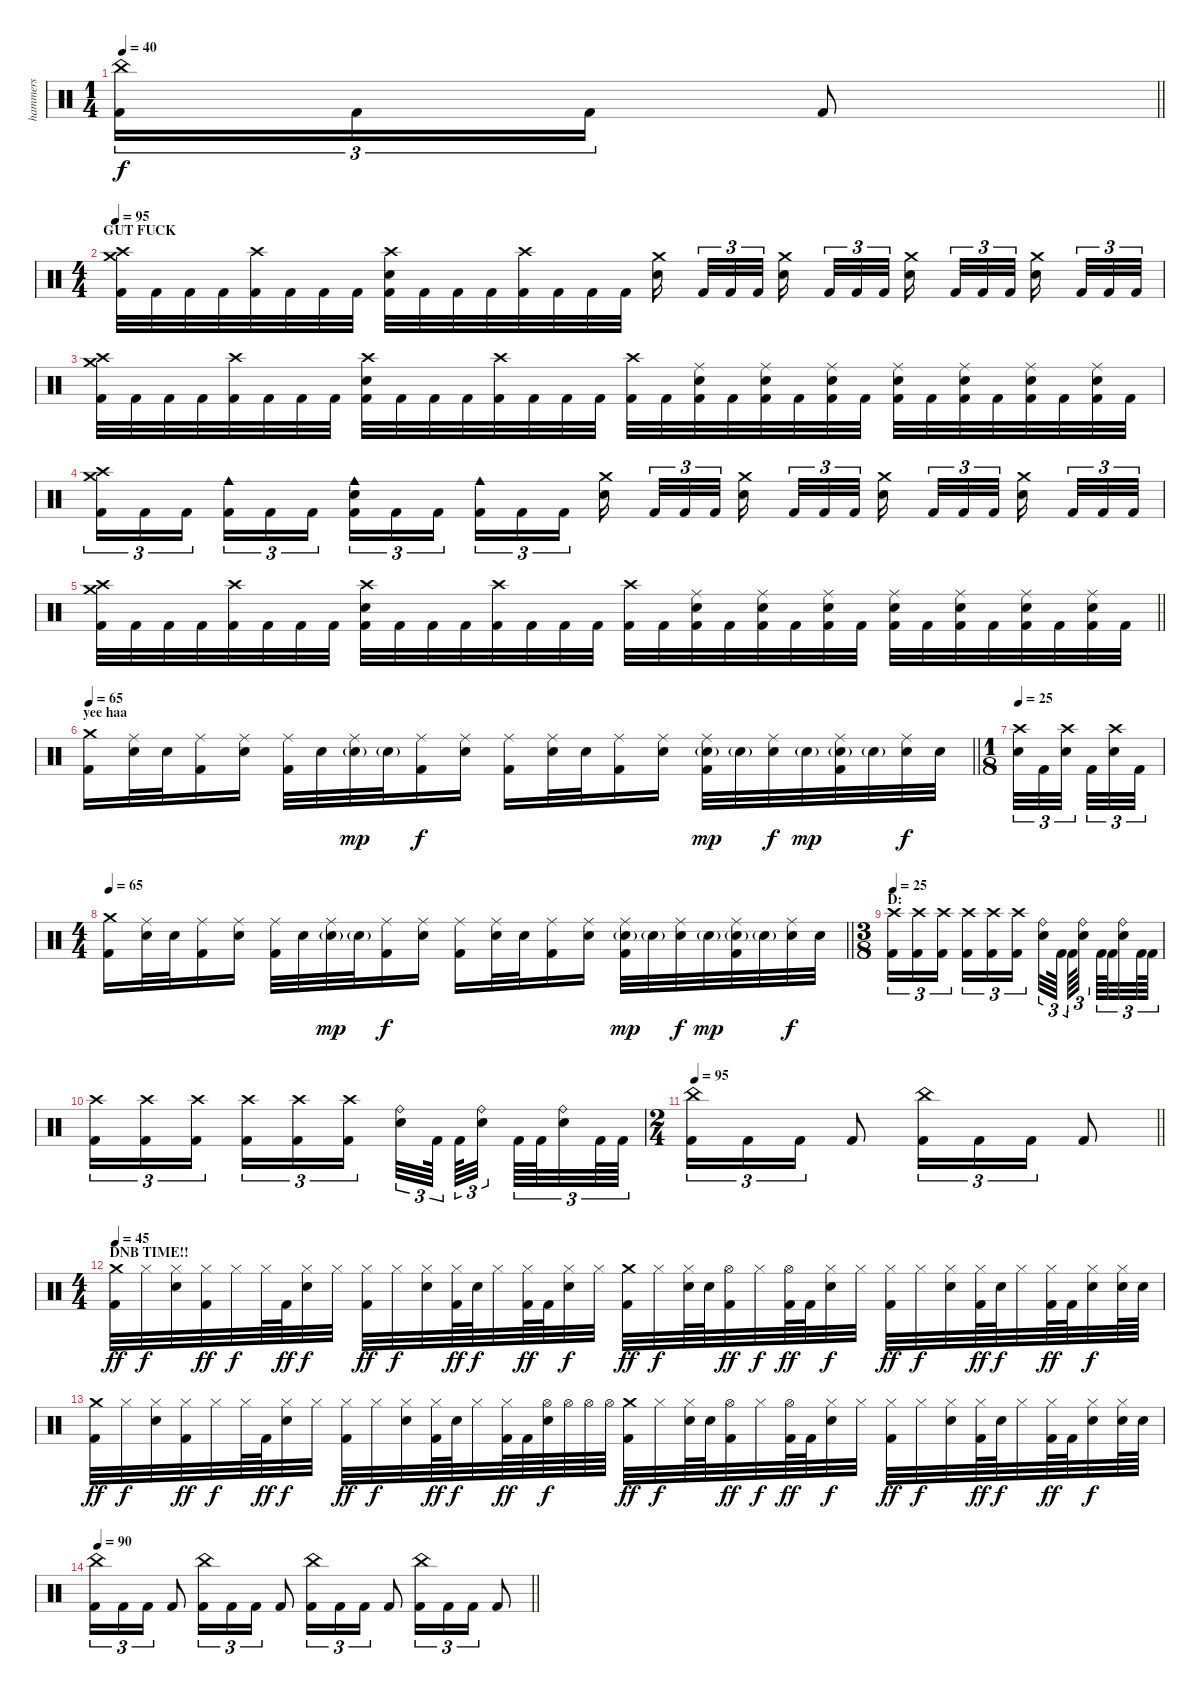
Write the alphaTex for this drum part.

\track ("hammers" "hammers") {instrument percussion}
\staff {score}
\articulation defaults
\ts (1 4)
\tempo 40
\clef neutral
\barLineRight lightlight
\ks c
("China (hit)" "Kick (hit) 2").16{tu (3 2) dy f} "Kick (hit) 2".16{tu (3 2)} "Kick (hit) 2".16{tu (3 2)} "Kick (hit) 2".8 |
\ts (4 4)
\section ("" "GUT FUCK")
\tempo 95
("Crash high (hit)" "Crash medium (hit)" "Kick (hit) 2").32 "Kick (hit) 2".32 "Kick (hit) 2".32 "Kick (hit) 2".32 ("Crash high (hit)" "Kick (hit) 2").32 "Kick (hit) 2".32 "Kick (hit) 2".32 "Kick (hit) 2".32 ("Crash high (hit)" "Electric Snare (hit)" "Kick (hit) 2").32 "Kick (hit) 2".32 "Kick (hit) 2".32 "Kick (hit) 2".32 ("Crash high (hit)" "Kick (hit) 2").32 "Kick (hit) 2".32 "Kick (hit) 2".32 "Kick (hit) 2".32 ("Crash medium (hit)" "Electric Snare (hit)").16{beam splitsecondary} "Kick (hit) 2".32{tu (3 2)} "Kick (hit) 2".32{tu (3 2)} "Kick (hit) 2".32{tu (3 2) beam splitsecondary} ("Crash medium (hit)" "Electric Snare (hit)").16{beam splitsecondary} "Kick (hit) 2".32{tu (3 2)} "Kick (hit) 2".32{tu (3 2)} "Kick (hit) 2".32{tu (3 2)} ("Crash medium (hit)" "Electric Snare (hit)").16{beam splitsecondary} "Kick (hit) 2".32{tu (3 2)} "Kick (hit) 2".32{tu (3 2)} "Kick (hit) 2".32{tu (3 2) beam splitsecondary} ("Crash medium (hit)" "Electric Snare (hit)").16{beam splitsecondary} "Kick (hit) 2".32{tu (3 2)} "Kick (hit) 2".32{tu (3 2)} "Kick (hit) 2".32{tu (3 2)} |
("Crash high (hit)" "Crash medium (hit)" "Kick (hit) 2").32 "Kick (hit) 2".32 "Kick (hit) 2".32 "Kick (hit) 2".32 ("Crash high (hit)" "Kick (hit) 2").32 "Kick (hit) 2".32 "Kick (hit) 2".32 "Kick (hit) 2".32 ("Crash high (hit)" "Electric Snare (hit)" "Kick (hit) 2").32 "Kick (hit) 2".32 "Kick (hit) 2".32 "Kick (hit) 2".32 ("Crash high (hit)" "Kick (hit) 2").32 "Kick (hit) 2".32 "Kick (hit) 2".32 "Kick (hit) 2".32 ("Crash high (hit)" "Kick (hit) 2").32 "Kick (hit) 2".32 ("Ride (middle)" "Electric Snare (hit)" "Kick (hit) 2").32 "Kick (hit) 2".32 ("Ride (middle)" "Electric Snare (hit)" "Kick (hit) 2").32 "Kick (hit) 2".32 ("Ride (middle)" "Electric Snare (hit)" "Kick (hit) 2").32 "Kick (hit) 2".32 ("Ride (middle)" "Electric Snare (hit)" "Kick (hit) 2").32 "Kick (hit) 2".32 ("Ride (middle)" "Electric Snare (hit)" "Kick (hit) 2").32 "Kick (hit) 2".32 ("Ride (middle)" "Electric Snare (hit)" "Kick (hit) 2").32 "Kick (hit) 2".32 ("Ride (middle)" "Electric Snare (hit)" "Kick (hit) 2").32 "Kick (hit) 2".32 |
("Crash high (hit)" "Crash medium (hit)" "Kick (hit) 2").16{tu (3 2)} "Kick (hit) 2".16{tu (3 2)} "Kick (hit) 2".16{tu (3 2) beam splitsecondary} ("Cowbell medium (hit)" "Kick (hit) 2").16{tu (3 2)} "Kick (hit) 2".16{tu (3 2)} "Kick (hit) 2".16{tu (3 2)} ("Cowbell medium (hit)" "Electric Snare (hit)" "Kick (hit) 2").16{tu (3 2)} "Kick (hit) 2".16{tu (3 2)} "Kick (hit) 2".16{tu (3 2) beam splitsecondary} ("Cowbell medium (hit)" "Kick (hit) 2").16{tu (3 2)} "Kick (hit) 2".16{tu (3 2)} "Kick (hit) 2".16{tu (3 2)} ("Crash medium (hit)" "Electric Snare (hit)").16{beam splitsecondary} "Kick (hit) 2".32{tu (3 2)} "Kick (hit) 2".32{tu (3 2)} "Kick (hit) 2".32{tu (3 2) beam splitsecondary} ("Crash medium (hit)" "Electric Snare (hit)").16{beam splitsecondary} "Kick (hit) 2".32{tu (3 2)} "Kick (hit) 2".32{tu (3 2)} "Kick (hit) 2".32{tu (3 2)} ("Crash medium (hit)" "Electric Snare (hit)").16{beam splitsecondary} "Kick (hit) 2".32{tu (3 2)} "Kick (hit) 2".32{tu (3 2)} "Kick (hit) 2".32{tu (3 2) beam splitsecondary} ("Crash medium (hit)" "Electric Snare (hit)").16{beam splitsecondary} "Kick (hit) 2".32{tu (3 2)} "Kick (hit) 2".32{tu (3 2)} "Kick (hit) 2".32{tu (3 2)} |
\barLineRight lightlight
("Crash high (hit)" "Crash medium (hit)" "Kick (hit) 2").32 "Kick (hit) 2".32 "Kick (hit) 2".32 "Kick (hit) 2".32 ("Crash high (hit)" "Kick (hit) 2").32 "Kick (hit) 2".32 "Kick (hit) 2".32 "Kick (hit) 2".32 ("Crash high (hit)" "Electric Snare (hit)" "Kick (hit) 2").32 "Kick (hit) 2".32 "Kick (hit) 2".32 "Kick (hit) 2".32 ("Crash high (hit)" "Kick (hit) 2").32 "Kick (hit) 2".32 "Kick (hit) 2".32 "Kick (hit) 2".32 ("Crash high (hit)" "Kick (hit) 2").32 "Kick (hit) 2".32 ("Ride (middle)" "Electric Snare (hit)" "Kick (hit) 2").32 "Kick (hit) 2".32 ("Ride (middle)" "Electric Snare (hit)" "Kick (hit) 2").32 "Kick (hit) 2".32 ("Ride (middle)" "Electric Snare (hit)" "Kick (hit) 2").32 "Kick (hit) 2".32 ("Ride (middle)" "Electric Snare (hit)" "Kick (hit) 2").32 "Kick (hit) 2".32 ("Ride (middle)" "Electric Snare (hit)" "Kick (hit) 2").32 "Kick (hit) 2".32 ("Ride (middle)" "Electric Snare (hit)" "Kick (hit) 2").32 "Kick (hit) 2".32 ("Ride (middle)" "Electric Snare (hit)" "Kick (hit) 2").32 "Kick (hit) 2".32 |
\section ("" "yee haa")
\tempo 65
\barLineRight lightlight
("Crash medium (hit)" "Kick (hit) 2").16 ("Ride (middle)" "Electric Snare (hit)").32 "Electric Snare (hit)".32 ("Ride (middle)" "Kick (hit) 2").16 ("Ride (middle)" "Electric Snare (hit)").16 ("Ride (middle)" "Kick (hit) 2").32 "Electric Snare (hit)".32 ("Ride (middle)" "Electric Snare (hit)"{g}).32{dy mp} "Electric Snare (hit)"{g}.32 ("Ride (middle)" "Kick (hit) 2").16{dy f} ("Ride (middle)" "Electric Snare (hit)").16 ("Ride (middle)" "Kick (hit) 2").16 ("Ride (middle)" "Electric Snare (hit)").32 "Electric Snare (hit)".32 ("Ride (middle)" "Kick (hit) 2").16 ("Ride (middle)" "Electric Snare (hit)").16 ("Ride (middle)" "Electric Snare (hit)"{g} "Kick (hit) 2").32{dy mp} "Electric Snare (hit)"{g}.32 ("Ride (middle)" "Electric Snare (hit)").32{dy f} "Electric Snare (hit)"{g}.32{dy mp} ("Ride (middle)" "Electric Snare (hit)"{g} "Kick (hit) 2").32 "Electric Snare (hit)"{g}.32 ("Ride (middle)" "Electric Snare (hit)").32{dy f} "Electric Snare (hit)".32 |
\ts (1 8)
\tempo 25
("Crash high (hit)" "Electric Snare (hit)").32{tu (3 2)} "Kick (hit) 2".32{tu (3 2)} ("Crash high (hit)" "Electric Snare (hit)").32{tu (3 2) beam splitsecondary} "Kick (hit) 2".32{tu (3 2)} ("Crash high (hit)" "Electric Snare (hit)").32{tu (3 2)} "Kick (hit) 2".32{tu (3 2)} |
\ts (4 4)
\tempo 65
\barLineRight lightlight
("Crash medium (hit)" "Kick (hit) 2").16 ("Ride (middle)" "Electric Snare (hit)").32 "Electric Snare (hit)".32 ("Ride (middle)" "Kick (hit) 2").16 ("Ride (middle)" "Electric Snare (hit)").16 ("Ride (middle)" "Kick (hit) 2").32 "Electric Snare (hit)".32 ("Ride (middle)" "Electric Snare (hit)"{g}).32{dy mp} "Electric Snare (hit)"{g}.32 ("Ride (middle)" "Kick (hit) 2").16{dy f} ("Ride (middle)" "Electric Snare (hit)").16 ("Ride (middle)" "Kick (hit) 2").16 ("Ride (middle)" "Electric Snare (hit)").32 "Electric Snare (hit)".32 ("Ride (middle)" "Kick (hit) 2").16 ("Ride (middle)" "Electric Snare (hit)").16 ("Ride (middle)" "Electric Snare (hit)"{g} "Kick (hit) 2").32{dy mp} "Electric Snare (hit)"{g}.32 ("Ride (middle)" "Electric Snare (hit)").32{dy f} "Electric Snare (hit)"{g}.32{dy mp} ("Ride (middle)" "Electric Snare (hit)"{g} "Kick (hit) 2").32 "Electric Snare (hit)"{g}.32 ("Ride (middle)" "Electric Snare (hit)").32{dy f} "Electric Snare (hit)".32 |
\ts (3 8)
\section ("" "D:")
\tempo 25
("Crash high (hit)" "Kick (hit) 2").16{tu (3 2)} ("Crash high (hit)" "Kick (hit) 2").16{tu (3 2)} ("Crash high (hit)" "Kick (hit) 2").16{tu (3 2)} ("Crash high (hit)" "Kick (hit) 2").16{tu (3 2)} ("Crash high (hit)" "Kick (hit) 2").16{tu (3 2)} ("Crash high (hit)" "Kick (hit) 2").16{tu (3 2)} ("Ride (bell)" "Electric Snare (hit)").32{tu (3 2)} "Kick (hit) 2".64{tu (3 2) beam splitsecondary} "Kick (hit) 2".64{tu (3 2)} ("Ride (bell)" "Electric Snare (hit)").32{tu (3 2) beam splitsecondary} "Kick (hit) 2".64{tu (3 2)} "Kick (hit) 2".64{tu (3 2)} ("Ride (bell)" "Electric Snare (hit)").32{tu (3 2)} "Kick (hit) 2".64{tu (3 2)} "Kick (hit) 2".64{tu (3 2)} |
("Crash high (hit)" "Kick (hit) 2").16{tu (3 2)} ("Crash high (hit)" "Kick (hit) 2").16{tu (3 2)} ("Crash high (hit)" "Kick (hit) 2").16{tu (3 2)} ("Crash high (hit)" "Kick (hit) 2").16{tu (3 2)} ("Crash high (hit)" "Kick (hit) 2").16{tu (3 2)} ("Crash high (hit)" "Kick (hit) 2").16{tu (3 2)} ("Ride (bell)" "Electric Snare (hit)").32{tu (3 2)} "Kick (hit) 2".64{tu (3 2) beam splitsecondary} "Kick (hit) 2".64{tu (3 2)} ("Ride (bell)" "Electric Snare (hit)").32{tu (3 2) beam splitsecondary} "Kick (hit) 2".64{tu (3 2)} "Kick (hit) 2".64{tu (3 2)} ("Ride (bell)" "Electric Snare (hit)").32{tu (3 2)} "Kick (hit) 2".64{tu (3 2)} "Kick (hit) 2".64{tu (3 2)} |
\ts (2 4)
\tempo 95
\barLineRight lightlight
("China (hit)" "Kick (hit) 2").16{tu (3 2)} "Kick (hit) 2".16{tu (3 2)} "Kick (hit) 2".16{tu (3 2)} "Kick (hit) 2".8 ("China (hit)" "Kick (hit) 2").16{tu (3 2)} "Kick (hit) 2".16{tu (3 2)} "Kick (hit) 2".16{tu (3 2)} "Kick (hit) 2".8 |
\ts (4 4)
\section ("" "DNB TIME!!")
\tempo 45
("Crash medium (hit)" "Kick (hit) 2").32{dy ff} "Hi-Hat (closed)".32{dy f} ("Hi-Hat (closed)" "Snare (hit) 2").32 ("Hi-Hat (closed)" "Kick (hit) 2").32{dy ff} "Hi-Hat (closed)".32{dy f} "Hi-Hat (closed)".64 "Kick (hit) 2".64{dy ff} ("Hi-Hat (closed)" "Snare (hit) 2").32{dy f} "Hi-Hat (closed)".32 ("Hi-Hat (closed)" "Kick (hit) 2").32{dy ff} "Hi-Hat (closed)".32{dy f} ("Hi-Hat (closed)" "Snare (hit) 2").32 ("Hi-Hat (closed)" "Kick (hit) 2").64{dy ff} "Snare (hit) 2".64{dy f} "Hi-Hat (closed)".32 ("Hi-Hat (closed)" "Kick (hit) 2").64{dy ff} "Kick (hit) 2".64 ("Hi-Hat (closed)" "Snare (hit) 2").32{dy f} "Hi-Hat (closed)".32 ("Crash medium (hit)" "Kick (hit) 2").32{dy ff} "Hi-Hat (closed)".32{dy f} ("Hi-Hat (closed)" "Snare (hit) 2").64 "Snare (hit) 2".64 ("Hi-Hat (open)" "Kick (hit) 2").32{dy ff} "Hi-Hat (closed)".32{dy f} ("Hi-Hat (open)" "Kick (hit) 2").64{dy ff} "Kick (hit) 2".64 ("Hi-Hat (closed)" "Snare (hit) 2").32{dy f} "Hi-Hat (closed)".32 ("Hi-Hat (closed)" "Kick (hit) 2").32{dy ff} "Hi-Hat (closed)".32{dy f} ("Hi-Hat (closed)" "Snare (hit) 2").32 ("Hi-Hat (closed)" "Kick (hit) 2").64{dy ff} "Snare (hit) 2".64{dy f} "Hi-Hat (closed)".32 ("Hi-Hat (closed)" "Kick (hit) 2").64{dy ff} "Kick (hit) 2".64 ("Hi-Hat (closed)" "Snare (hit) 2").32{dy f} ("Hi-Hat (closed)" "Snare (hit) 2").64 "Snare (hit) 2".64 |
("Crash medium (hit)" "Kick (hit) 2").32{dy ff} "Hi-Hat (closed)".32{dy f} ("Hi-Hat (closed)" "Snare (hit) 2").32 ("Hi-Hat (closed)" "Kick (hit) 2").32{dy ff} "Hi-Hat (closed)".32{dy f} "Hi-Hat (closed)".64 "Kick (hit) 2".64{dy ff} ("Hi-Hat (closed)" "Snare (hit) 2").32{dy f} "Hi-Hat (closed)".32 ("Hi-Hat (closed)" "Kick (hit) 2").32{dy ff} "Hi-Hat (closed)".32{dy f} ("Hi-Hat (closed)" "Snare (hit) 2").32 ("Hi-Hat (closed)" "Kick (hit) 2").64{dy ff} "Snare (hit) 2".64{dy f} "Hi-Hat (closed)".32 ("Hi-Hat (closed)" "Kick (hit) 2").64{dy ff} "Kick (hit) 2".64 ("Hi-Hat (open)" "Snare (hit) 2").64{dy f} "Hi-Hat (open)".64 "Hi-Hat (open)".64 "Hi-Hat (open)".64 ("Crash medium (hit)" "Kick (hit) 2").32{dy ff} "Hi-Hat (closed)".32{dy f} ("Hi-Hat (closed)" "Snare (hit) 2").64 "Snare (hit) 2".64 ("Hi-Hat (open)" "Kick (hit) 2").32{dy ff} "Hi-Hat (closed)".32{dy f} ("Hi-Hat (open)" "Kick (hit) 2").64{dy ff} "Kick (hit) 2".64 ("Hi-Hat (closed)" "Snare (hit) 2").32{dy f} "Hi-Hat (closed)".32 ("Hi-Hat (closed)" "Kick (hit) 2").32{dy ff} "Hi-Hat (closed)".32{dy f} ("Hi-Hat (closed)" "Snare (hit) 2").32 ("Hi-Hat (closed)" "Kick (hit) 2").64{dy ff} "Snare (hit) 2".64{dy f} "Hi-Hat (closed)".32 ("Hi-Hat (closed)" "Kick (hit) 2").64{dy ff} "Kick (hit) 2".64 ("Hi-Hat (closed)" "Snare (hit) 2").32{dy f} ("Hi-Hat (closed)" "Snare (hit) 2").64 "Snare (hit) 2".64 |
\tempo 90
\barLineRight lightlight
("China (hit)" "Kick (hit) 2").16{tu (3 2) volume 16} "Kick (hit) 2".16{tu (3 2)} "Kick (hit) 2".16{tu (3 2)} "Kick (hit) 2".8 ("China (hit)" "Kick (hit) 2").16{tu (3 2)} "Kick (hit) 2".16{tu (3 2)} "Kick (hit) 2".16{tu (3 2)} "Kick (hit) 2".8 ("China (hit)" "Kick (hit) 2").16{tu (3 2)} "Kick (hit) 2".16{tu (3 2)} "Kick (hit) 2".16{tu (3 2)} "Kick (hit) 2".8 ("China (hit)" "Kick (hit) 2").16{tu (3 2)} "Kick (hit) 2".16{tu (3 2)} "Kick (hit) 2".16{tu (3 2)} "Kick (hit) 2".8
